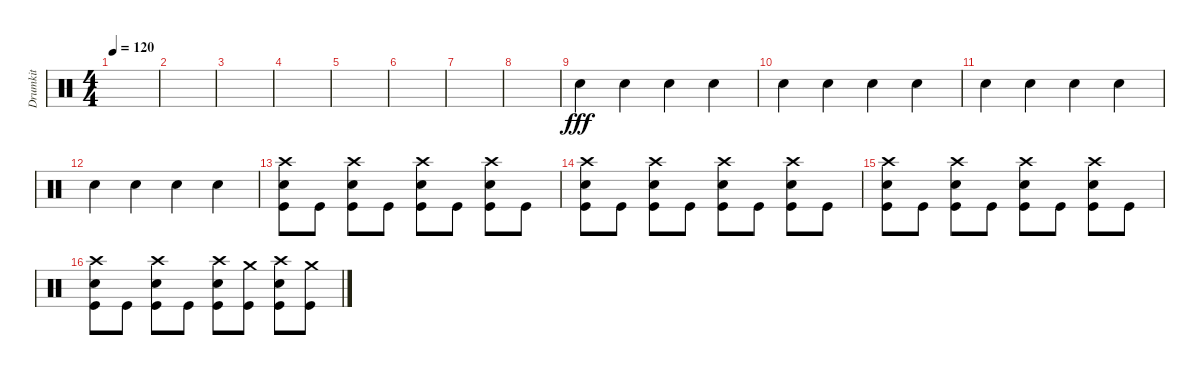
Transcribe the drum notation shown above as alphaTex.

\track ("Drumkit" "Drumkit") {instrument percussion}
\staff {score}
\articulation defaults
\ts (4 4)
\tempo 120
\clef neutral
\ks c
|
|
|
|
|
|
|
|
"Snare (hit) 2".4{dy fff} "Snare (hit) 2".4 "Snare (hit) 2".4 "Snare (hit) 2".4 |
"Snare (hit) 2".4 "Snare (hit) 2".4 "Snare (hit) 2".4 "Snare (hit) 2".4 |
"Snare (hit) 2".4 "Snare (hit) 2".4 "Snare (hit) 2".4 "Snare (hit) 2".4 |
"Snare (hit) 2".4 "Snare (hit) 2".4 "Snare (hit) 2".4 "Snare (hit) 2".4 |
("Kick (hit)" "Snare (hit) 2" "Crash high (hit)").8 "Kick (hit)".8 ("Kick (hit)" "Snare (hit) 2" "Crash high (hit)").8 "Kick (hit)".8 ("Kick (hit)" "Snare (hit) 2" "Crash high (hit)").8 "Kick (hit)".8 ("Kick (hit)" "Snare (hit) 2" "Crash high (hit)").8 "Kick (hit)".8 |
("Kick (hit)" "Snare (hit) 2" "Crash high (hit)").8 "Kick (hit)".8 ("Kick (hit)" "Snare (hit) 2" "Crash high (hit)").8 "Kick (hit)".8 ("Kick (hit)" "Snare (hit) 2" "Crash high (hit)").8 "Kick (hit)".8 ("Kick (hit)" "Snare (hit) 2" "Crash high (hit)").8 "Kick (hit)".8 |
("Kick (hit)" "Snare (hit) 2" "Crash high (hit)").8 "Kick (hit)".8 ("Kick (hit)" "Snare (hit) 2" "Crash high (hit)").8 "Kick (hit)".8 ("Kick (hit)" "Snare (hit) 2" "Crash high (hit)").8 "Kick (hit)".8 ("Kick (hit)" "Snare (hit) 2" "Crash high (hit)").8 "Kick (hit)".8 |
("Kick (hit)" "Snare (hit) 2" "Crash high (hit)").8 "Kick (hit)".8 ("Kick (hit)" "Snare (hit) 2" "Crash high (hit)").8 "Kick (hit)".8 ("Kick (hit)" "Snare (hit) 2" "Crash high (hit)").8 ("Kick (hit)" "Crash medium (hit)").8 ("Kick (hit)" "Snare (hit) 2" "Crash high (hit)").8 ("Kick (hit)" "Crash medium (hit)").8
